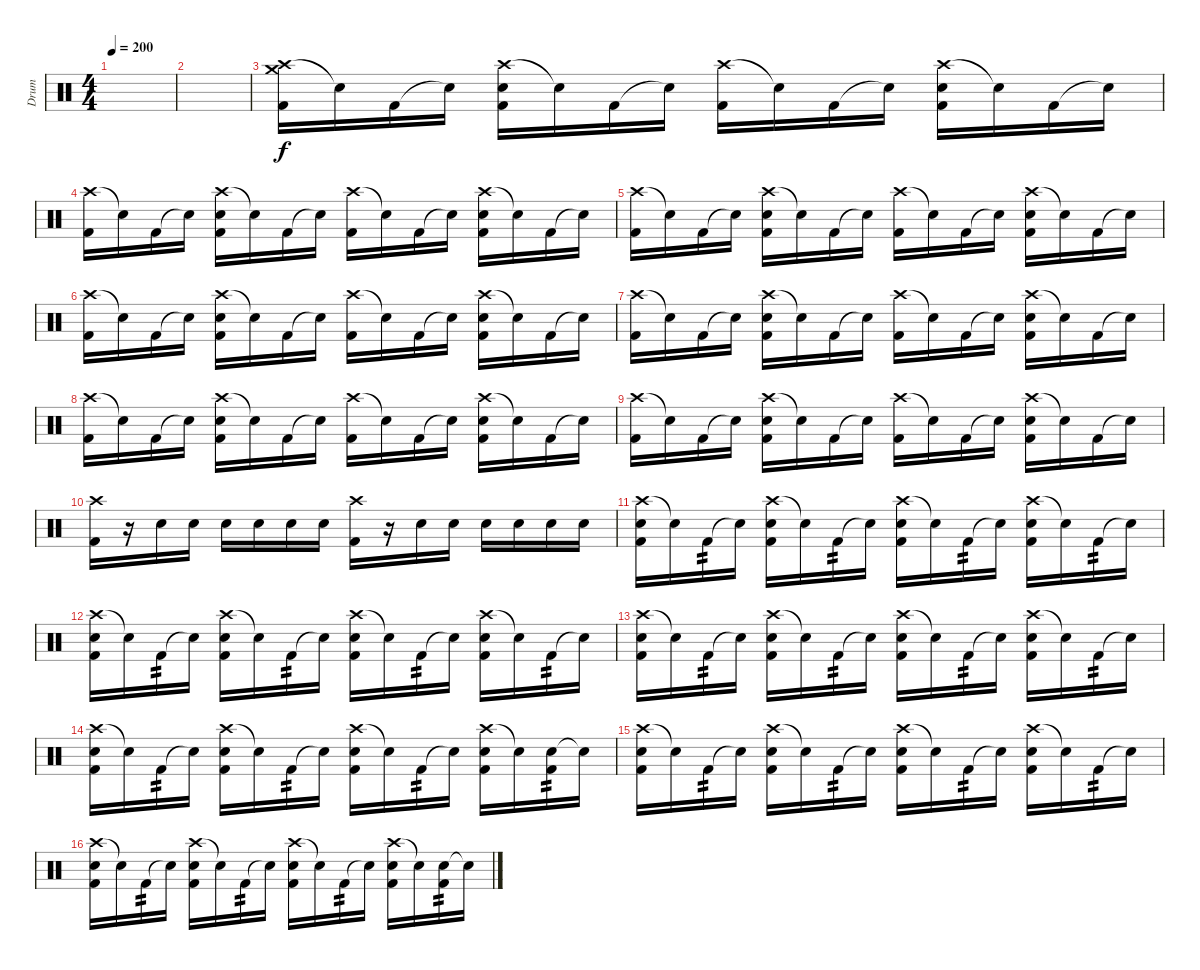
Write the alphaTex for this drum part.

\track ("Drum" "Drum") {instrument percussion}
\staff {score}
\articulation defaults
\ts (4 4)
\tempo 200
\clef neutral
\ks c
|
|
("Crash high (hit)" "Crash medium (hit)" "Kick (hit) 2").16 "Snare (hit)"{t}.16 "Kick (hit) 2".16 "Snare (hit)"{t}.16 ("Crash high (hit)" "Snare (hit) 2" "Kick (hit) 2").16 "Snare (hit)"{t}.16 "Kick (hit) 2".16 "Snare (hit)"{t}.16 ("Crash high (hit)" "Kick (hit) 2").16 "Snare (hit)"{t}.16 "Kick (hit) 2".16 "Snare (hit)"{t}.16 ("Crash high (hit)" "Snare (hit) 2" "Kick (hit) 2").16 "Snare (hit)"{t}.16 "Kick (hit) 2".16 "Snare (hit)"{t}.16 |
("Crash high (hit)" "Kick (hit) 2").16 "Snare (hit)"{t}.16 "Kick (hit) 2".16 "Snare (hit)"{t}.16 ("Crash high (hit)" "Snare (hit) 2" "Kick (hit) 2").16 "Snare (hit)"{t}.16 "Kick (hit) 2".16 "Snare (hit)"{t}.16 ("Crash high (hit)" "Kick (hit) 2").16 "Snare (hit)"{t}.16 "Kick (hit) 2".16 "Snare (hit)"{t}.16 ("Crash high (hit)" "Snare (hit) 2" "Kick (hit) 2").16 "Snare (hit)"{t}.16 "Kick (hit) 2".16 "Snare (hit)"{t}.16 |
("Crash high (hit)" "Kick (hit) 2").16 "Snare (hit)"{t}.16 "Kick (hit) 2".16 "Snare (hit)"{t}.16 ("Crash high (hit)" "Snare (hit) 2" "Kick (hit) 2").16 "Snare (hit)"{t}.16 "Kick (hit) 2".16 "Snare (hit)"{t}.16 ("Crash high (hit)" "Kick (hit) 2").16 "Snare (hit)"{t}.16 "Kick (hit) 2".16 "Snare (hit)"{t}.16 ("Crash high (hit)" "Snare (hit) 2" "Kick (hit) 2").16 "Snare (hit)"{t}.16 "Kick (hit) 2".16 "Snare (hit)"{t}.16 |
("Crash high (hit)" "Kick (hit) 2").16 "Snare (hit)"{t}.16 "Kick (hit) 2".16 "Snare (hit)"{t}.16 ("Crash high (hit)" "Snare (hit) 2" "Kick (hit) 2").16 "Snare (hit)"{t}.16 "Kick (hit) 2".16 "Snare (hit)"{t}.16 ("Crash high (hit)" "Kick (hit) 2").16 "Snare (hit)"{t}.16 "Kick (hit) 2".16 "Snare (hit)"{t}.16 ("Crash high (hit)" "Snare (hit) 2" "Kick (hit) 2").16 "Snare (hit)"{t}.16 "Kick (hit) 2".16 "Snare (hit)"{t}.16 |
("Crash high (hit)" "Kick (hit) 2").16 "Snare (hit)"{t}.16 "Kick (hit) 2".16 "Snare (hit)"{t}.16 ("Crash high (hit)" "Snare (hit) 2" "Kick (hit) 2").16 "Snare (hit)"{t}.16 "Kick (hit) 2".16 "Snare (hit)"{t}.16 ("Crash high (hit)" "Kick (hit) 2").16 "Snare (hit)"{t}.16 "Kick (hit) 2".16 "Snare (hit)"{t}.16 ("Crash high (hit)" "Snare (hit) 2" "Kick (hit) 2").16 "Snare (hit)"{t}.16 "Kick (hit) 2".16 "Snare (hit)"{t}.16 |
("Crash high (hit)" "Kick (hit) 2").16 "Snare (hit)"{t}.16 "Kick (hit) 2".16 "Snare (hit)"{t}.16 ("Crash high (hit)" "Snare (hit) 2" "Kick (hit) 2").16 "Snare (hit)"{t}.16 "Kick (hit) 2".16 "Snare (hit)"{t}.16 ("Crash high (hit)" "Kick (hit) 2").16 "Snare (hit)"{t}.16 "Kick (hit) 2".16 "Snare (hit)"{t}.16 ("Crash high (hit)" "Snare (hit) 2" "Kick (hit) 2").16 "Snare (hit)"{t}.16 "Kick (hit) 2".16 "Snare (hit)"{t}.16 |
("Crash high (hit)" "Kick (hit) 2").16 "Snare (hit)"{t}.16 "Kick (hit) 2".16 "Snare (hit)"{t}.16 ("Crash high (hit)" "Snare (hit) 2" "Kick (hit) 2").16 "Snare (hit)"{t}.16 "Kick (hit) 2".16 "Snare (hit)"{t}.16 ("Crash high (hit)" "Kick (hit) 2").16 "Snare (hit)"{t}.16 "Kick (hit) 2".16 "Snare (hit)"{t}.16 ("Crash high (hit)" "Snare (hit) 2" "Kick (hit) 2").16 "Snare (hit)"{t}.16 "Kick (hit) 2".16 "Snare (hit)"{t}.16 |
("Crash high (hit)" "Kick (hit) 2").16 r.16 "Snare (hit) 2".16 "Snare (hit) 2".16 "Snare (hit) 2".16 "Snare (hit) 2".16 "Snare (hit) 2".16 "Snare (hit) 2".16 ("Crash high (hit)" "Kick (hit) 2").16 r.16 "Snare (hit) 2".16 "Snare (hit) 2".16 "Snare (hit) 2".16 "Snare (hit) 2".16 "Snare (hit) 2".16 "Snare (hit) 2".16 |
("Crash high (hit)" "Snare (hit) 2" "Kick (hit) 2").16 "Snare (hit)"{t}.16 "Kick (hit) 2".16{tp 2} "Snare (hit)"{t}.16 ("Crash high (hit)" "Snare (hit) 2" "Kick (hit) 2").16 "Snare (hit)"{t}.16 "Kick (hit) 2".16{tp 2} "Snare (hit)"{t}.16 ("Crash high (hit)" "Snare (hit) 2" "Kick (hit) 2").16 "Snare (hit)"{t}.16 "Kick (hit) 2".16{tp 2} "Snare (hit)"{t}.16 ("Crash high (hit)" "Snare (hit) 2" "Kick (hit) 2").16 "Snare (hit)"{t}.16 "Kick (hit) 2".16{tp 2} "Snare (hit)"{t}.16 |
("Crash high (hit)" "Snare (hit) 2" "Kick (hit) 2").16 "Snare (hit)"{t}.16 "Kick (hit) 2".16{tp 2} "Snare (hit)"{t}.16 ("Crash high (hit)" "Snare (hit) 2" "Kick (hit) 2").16 "Snare (hit)"{t}.16 "Kick (hit) 2".16{tp 2} "Snare (hit)"{t}.16 ("Crash high (hit)" "Snare (hit) 2" "Kick (hit) 2").16 "Snare (hit)"{t}.16 "Kick (hit) 2".16{tp 2} "Snare (hit)"{t}.16 ("Crash high (hit)" "Snare (hit) 2" "Kick (hit) 2").16 "Snare (hit)"{t}.16 "Kick (hit) 2".16{tp 2} "Snare (hit)"{t}.16 |
("Crash high (hit)" "Snare (hit) 2" "Kick (hit) 2").16 "Snare (hit)"{t}.16 "Kick (hit) 2".16{tp 2} "Snare (hit)"{t}.16 ("Crash high (hit)" "Snare (hit) 2" "Kick (hit) 2").16 "Snare (hit)"{t}.16 "Kick (hit) 2".16{tp 2} "Snare (hit)"{t}.16 ("Crash high (hit)" "Snare (hit) 2" "Kick (hit) 2").16 "Snare (hit)"{t}.16 "Kick (hit) 2".16{tp 2} "Snare (hit)"{t}.16 ("Crash high (hit)" "Snare (hit) 2" "Kick (hit) 2").16 "Snare (hit)"{t}.16 "Kick (hit) 2".16{tp 2} "Snare (hit)"{t}.16 |
("Crash high (hit)" "Snare (hit) 2" "Kick (hit) 2").16 "Snare (hit)"{t}.16 "Kick (hit) 2".16{tp 2} "Snare (hit)"{t}.16 ("Crash high (hit)" "Snare (hit) 2" "Kick (hit) 2").16 "Snare (hit)"{t}.16 "Kick (hit) 2".16{tp 2} "Snare (hit)"{t}.16 ("Crash high (hit)" "Snare (hit) 2" "Kick (hit) 2").16 "Snare (hit)"{t}.16 "Kick (hit) 2".16{tp 2} "Snare (hit)"{t}.16 ("Crash high (hit)" "Snare (hit) 2" "Kick (hit) 2").16 "Snare (hit)"{t}.16 ("Snare (hit) 2" "Kick (hit) 2").16{tp 2} "Snare (hit)"{t}.16 |
("Crash high (hit)" "Snare (hit) 2" "Kick (hit) 2").16 "Snare (hit)"{t}.16 "Kick (hit) 2".16{tp 2} "Snare (hit)"{t}.16 ("Crash high (hit)" "Snare (hit) 2" "Kick (hit) 2").16 "Snare (hit)"{t}.16 "Kick (hit) 2".16{tp 2} "Snare (hit)"{t}.16 ("Crash high (hit)" "Snare (hit) 2" "Kick (hit) 2").16 "Snare (hit)"{t}.16 "Kick (hit) 2".16{tp 2} "Snare (hit)"{t}.16 ("Crash high (hit)" "Snare (hit) 2" "Kick (hit) 2").16 "Snare (hit)"{t}.16 "Kick (hit) 2".16{tp 2} "Snare (hit)"{t}.16 |
("Crash high (hit)" "Snare (hit) 2" "Kick (hit) 2").16 "Snare (hit)"{t}.16 "Kick (hit) 2".16{tp 2} "Snare (hit)"{t}.16 ("Crash high (hit)" "Snare (hit) 2" "Kick (hit) 2").16 "Snare (hit)"{t}.16 "Kick (hit) 2".16{tp 2} "Snare (hit)"{t}.16 ("Crash high (hit)" "Snare (hit) 2" "Kick (hit) 2").16 "Snare (hit)"{t}.16 "Kick (hit) 2".16{tp 2} "Snare (hit)"{t}.16 ("Crash high (hit)" "Snare (hit) 2" "Kick (hit) 2").16 "Snare (hit)"{t}.16 ("Snare (hit) 2" "Kick (hit) 2").16{tp 2} "Snare (hit)"{t}.16
